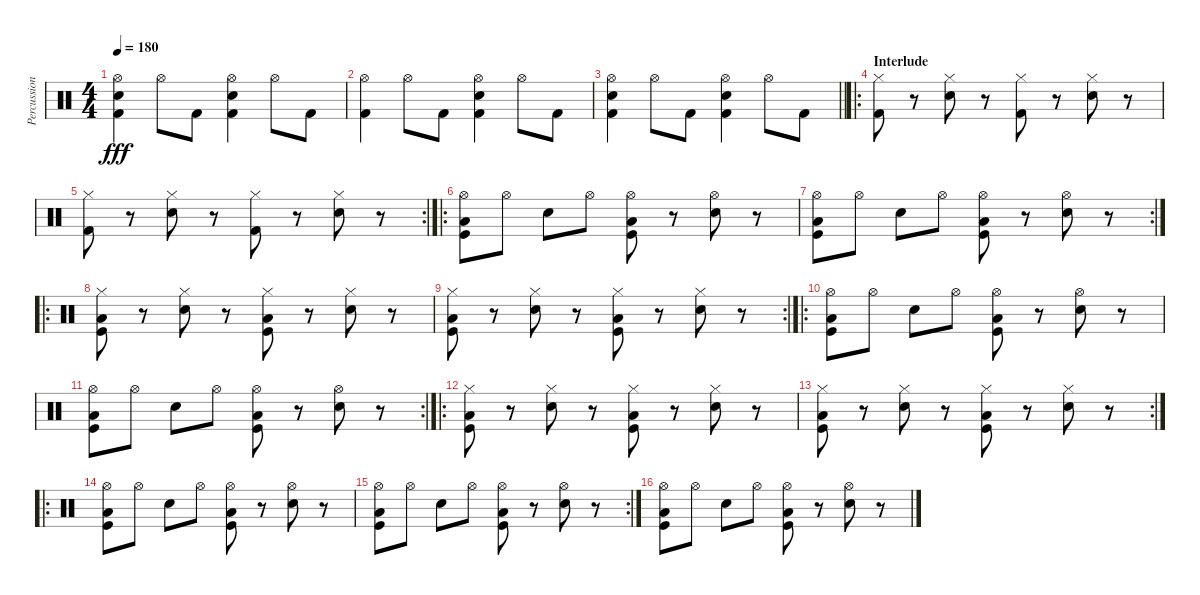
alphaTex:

\track ("Percussion" "Percussion") {instrument percussion}
\staff {score}
\articulation defaults
\ts (4 4)
\tempo 180
\clef neutral
\ks c
("Hi-Hat (open)" "Electric Snare (hit)" "Kick (hit) 2").4{dy fff} "Hi-Hat (open)".8 "Kick (hit) 2".8 ("Hi-Hat (open)" "Electric Snare (hit)" "Kick (hit) 2").4 "Hi-Hat (open)".8 "Kick (hit) 2".8 |
("Hi-Hat (open)" "Kick (hit) 2").4 "Hi-Hat (open)".8 "Kick (hit) 2".8 ("Hi-Hat (open)" "Electric Snare (hit)" "Kick (hit) 2").4 "Hi-Hat (open)".8 "Kick (hit) 2".8 |
\barLineRight lightlight
("Hi-Hat (open)" "Electric Snare (hit)" "Kick (hit) 2").4 "Hi-Hat (open)".8 "Kick (hit) 2".8 ("Hi-Hat (open)" "Electric Snare (hit)" "Kick (hit) 2").4 "Hi-Hat (open)".8 "Kick (hit) 2".8 |
\ro
\section ("" "Interlude")
("Hi-Hat (closed)" "Kick (hit) 2").8 r.8 ("Hi-Hat (closed)" "Electric Snare (hit)").8 r.8 ("Hi-Hat (closed)" "Kick (hit) 2").8 r.8 ("Hi-Hat (closed)" "Electric Snare (hit)").8 r.8 |
\rc 2
("Hi-Hat (closed)" "Kick (hit) 2").8 r.8 ("Hi-Hat (closed)" "Electric Snare (hit)").8 r.8 ("Hi-Hat (closed)" "Kick (hit) 2").8 r.8 ("Hi-Hat (closed)" "Electric Snare (hit)").8 r.8 |
\ro
("Hi-Hat (open)" "Low Floor Tom (hit)" "Kick (hit)").8 "Hi-Hat (open)".8 "Electric Snare (hit)".8 "Hi-Hat (open)".8 ("Hi-Hat (open)" "Low Floor Tom (hit)" "Kick (hit)").8 r.8 ("Hi-Hat (open)" "Electric Snare (hit)").8 r.8 |
\rc 2
("Hi-Hat (open)" "Low Floor Tom (hit)" "Kick (hit)").8 "Hi-Hat (open)".8 "Electric Snare (hit)".8 "Hi-Hat (open)".8 ("Hi-Hat (open)" "Low Floor Tom (hit)" "Kick (hit)").8 r.8 ("Hi-Hat (open)" "Electric Snare (hit)").8 r.8 |
\ro
("Hi-Hat (closed)" "Low Floor Tom (hit)" "Kick (hit)").8 r.8 ("Hi-Hat (closed)" "Electric Snare (hit)").8 r.8 ("Hi-Hat (closed)" "Low Floor Tom (hit)" "Kick (hit)").8 r.8 ("Hi-Hat (closed)" "Electric Snare (hit)").8 r.8 |
\rc 2
("Hi-Hat (closed)" "Low Floor Tom (hit)" "Kick (hit)").8 r.8 ("Hi-Hat (closed)" "Electric Snare (hit)").8 r.8 ("Hi-Hat (closed)" "Low Floor Tom (hit)" "Kick (hit)").8 r.8 ("Hi-Hat (closed)" "Electric Snare (hit)").8 r.8 |
\ro
("Hi-Hat (open)" "Low Floor Tom (hit)" "Kick (hit)").8 "Hi-Hat (open)".8 "Electric Snare (hit)".8 "Hi-Hat (open)".8 ("Hi-Hat (open)" "Low Floor Tom (hit)" "Kick (hit)").8 r.8 ("Hi-Hat (open)" "Electric Snare (hit)").8 r.8 |
\rc 2
("Hi-Hat (open)" "Low Floor Tom (hit)" "Kick (hit)").8 "Hi-Hat (open)".8 "Electric Snare (hit)".8 "Hi-Hat (open)".8 ("Hi-Hat (open)" "Low Floor Tom (hit)" "Kick (hit)").8 r.8 ("Hi-Hat (open)" "Electric Snare (hit)").8 r.8 |
\ro
("Hi-Hat (closed)" "Low Floor Tom (hit)" "Kick (hit)").8 r.8 ("Hi-Hat (closed)" "Electric Snare (hit)").8 r.8 ("Hi-Hat (closed)" "Low Floor Tom (hit)" "Kick (hit)").8 r.8 ("Hi-Hat (closed)" "Electric Snare (hit)").8 r.8 |
\rc 2
("Hi-Hat (closed)" "Low Floor Tom (hit)" "Kick (hit)").8 r.8 ("Hi-Hat (closed)" "Electric Snare (hit)").8 r.8 ("Hi-Hat (closed)" "Low Floor Tom (hit)" "Kick (hit)").8 r.8 ("Hi-Hat (closed)" "Electric Snare (hit)").8 r.8 |
\ro
("Hi-Hat (open)" "Low Floor Tom (hit)" "Kick (hit)").8 "Hi-Hat (open)".8 "Electric Snare (hit)".8 "Hi-Hat (open)".8 ("Hi-Hat (open)" "Low Floor Tom (hit)" "Kick (hit)").8 r.8 ("Hi-Hat (open)" "Electric Snare (hit)").8 r.8 |
\rc 2
("Hi-Hat (open)" "Low Floor Tom (hit)" "Kick (hit)").8 "Hi-Hat (open)".8 "Electric Snare (hit)".8 "Hi-Hat (open)".8 ("Hi-Hat (open)" "Low Floor Tom (hit)" "Kick (hit)").8 r.8 ("Hi-Hat (open)" "Electric Snare (hit)").8 r.8 |
("Hi-Hat (open)" "Low Floor Tom (hit)" "Kick (hit)").8 "Hi-Hat (open)".8 "Electric Snare (hit)".8 "Hi-Hat (open)".8 ("Hi-Hat (open)" "Low Floor Tom (hit)" "Kick (hit)").8 r.8 ("Hi-Hat (open)" "Electric Snare (hit)").8 r.8
